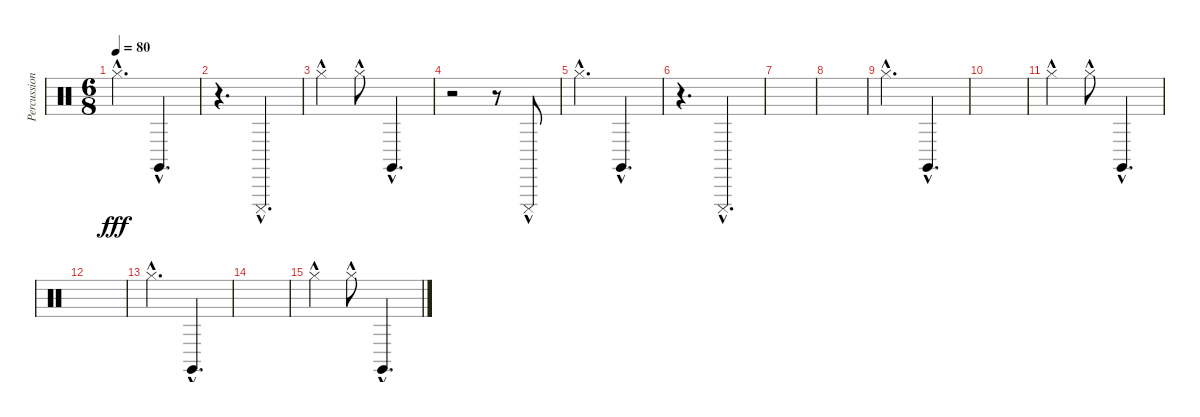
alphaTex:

\track ("Percussion" "Percussion") {instrument percussion}
\staff {score}
\articulation defaults
\ts (6 8)
\tempo 80
\clef neutral
\ks c "Hi-Hat (closed)"{hac}.4{d dy fff} "Claves (hit)"{hac}.4{d}
|
r.4{d} "Cuica (mute)"{hac}.4{d} |
"Hi-Hat (closed)"{hac}.4 "Hi-Hat (closed)"{hac}.8 "Claves (hit)"{hac}.4{d} |
r.2 r.8 "Cuica (mute)"{hac}.8 |
"Hi-Hat (closed)"{hac}.4{d} "Claves (hit)"{hac}.4{d} |
r.4{d} "Cuica (mute)"{hac}.4{d} |
|
|
"Hi-Hat (closed)"{hac}.4{d} "Claves (hit)"{hac}.4{d} |
|
"Hi-Hat (closed)"{hac}.4 "Hi-Hat (closed)"{hac}.8 "Claves (hit)"{hac}.4{d} |
|
"Hi-Hat (closed)"{hac}.4{d} "Claves (hit)"{hac}.4{d} |
|
"Hi-Hat (closed)"{hac}.4 "Hi-Hat (closed)"{hac}.8 "Claves (hit)"{hac}.4{d}
